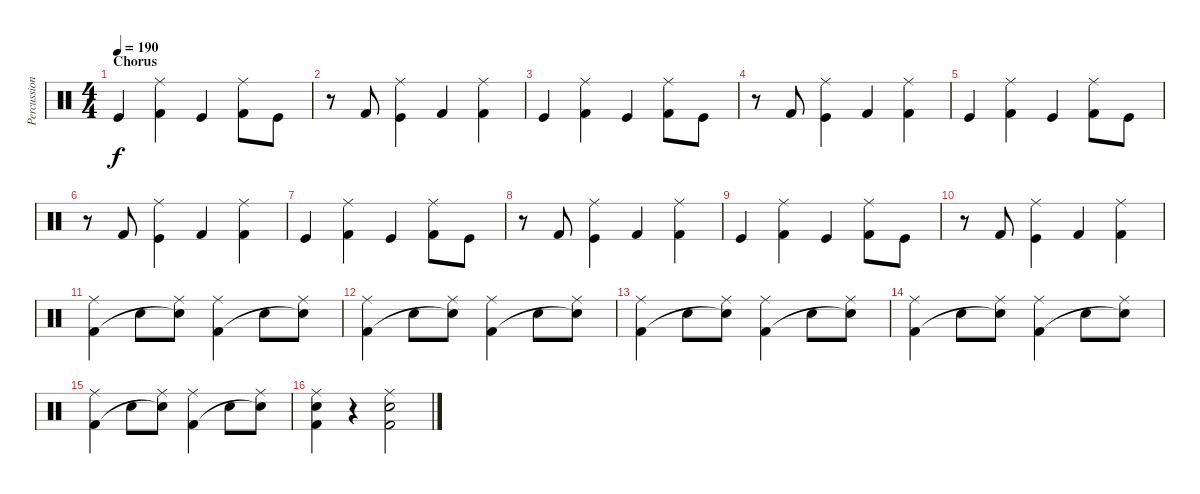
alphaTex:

\track ("Percussion" "Percussion") {instrument percussion}
\staff {score}
\articulation defaults
\ts (4 4)
\section ("" "Chorus")
\tempo 190
\clef neutral
\ks c "Kick (hit)".4{dy f}
("Ride (middle)" "Kick (hit) 2").4 "Kick (hit)".4 ("Ride (middle)" "Kick (hit) 2").8 "Kick (hit)".8 |
r.8 "Kick (hit) 2".8 ("Ride (middle)" "Kick (hit)").4 "Kick (hit) 2".4 ("Ride (middle)" "Kick (hit) 2").4 |
"Kick (hit)".4 ("Ride (middle)" "Kick (hit) 2").4 "Kick (hit)".4 ("Ride (middle)" "Kick (hit) 2").8 "Kick (hit)".8 |
r.8 "Kick (hit) 2".8 ("Ride (middle)" "Kick (hit)").4 "Kick (hit) 2".4 ("Ride (middle)" "Kick (hit) 2").4 |
"Kick (hit)".4 ("Ride (middle)" "Kick (hit) 2").4 "Kick (hit)".4 ("Ride (middle)" "Kick (hit) 2").8 "Kick (hit)".8 |
r.8 "Kick (hit) 2".8 ("Ride (middle)" "Kick (hit)").4 "Kick (hit) 2".4 ("Ride (middle)" "Kick (hit) 2").4 |
"Kick (hit)".4 ("Ride (middle)" "Kick (hit) 2").4 "Kick (hit)".4 ("Ride (middle)" "Kick (hit) 2").8 "Kick (hit)".8 |
r.8 "Kick (hit) 2".8 ("Ride (middle)" "Kick (hit)").4 "Kick (hit) 2".4 ("Ride (middle)" "Kick (hit) 2").4 |
"Kick (hit)".4 ("Ride (middle)" "Kick (hit) 2").4 "Kick (hit)".4 ("Ride (middle)" "Kick (hit) 2").8 "Kick (hit)".8 |
r.8 "Kick (hit) 2".8 ("Ride (middle)" "Kick (hit)").4 "Kick (hit) 2".4 ("Ride (middle)" "Kick (hit) 2").4 |
("Ride (middle)" "Kick (hit) 2").4 "Electric Snare (hit)".8 ("Ride (middle)" "Electric Snare (hit)"{t}).8 ("Ride (middle)" "Kick (hit) 2").4 "Electric Snare (hit)".8 ("Ride (middle)" "Electric Snare (hit)"{t}).8 |
("Ride (middle)" "Kick (hit) 2").4 "Electric Snare (hit)".8 ("Ride (middle)" "Electric Snare (hit)"{t}).8 ("Ride (middle)" "Kick (hit) 2").4 "Electric Snare (hit)".8 ("Ride (middle)" "Electric Snare (hit)"{t}).8 |
("Ride (middle)" "Kick (hit) 2").4 "Electric Snare (hit)".8 ("Ride (middle)" "Electric Snare (hit)"{t}).8 ("Ride (middle)" "Kick (hit) 2").4 "Electric Snare (hit)".8 ("Ride (middle)" "Electric Snare (hit)"{t}).8 |
("Ride (middle)" "Kick (hit) 2").4 "Electric Snare (hit)".8 ("Ride (middle)" "Electric Snare (hit)"{t}).8 ("Ride (middle)" "Kick (hit) 2").4 "Electric Snare (hit)".8 ("Ride (middle)" "Electric Snare (hit)"{t}).8 |
("Ride (middle)" "Kick (hit) 2").4 "Electric Snare (hit)".8 ("Ride (middle)" "Electric Snare (hit)"{t}).8 ("Ride (middle)" "Kick (hit) 2").4 "Electric Snare (hit)".8 ("Ride (middle)" "Electric Snare (hit)"{t}).8 |
("Ride (middle)" "Electric Snare (hit)" "Kick (hit) 2").4 r.4 ("Ride (middle)" "Electric Snare (hit)" "Kick (hit) 2").2
